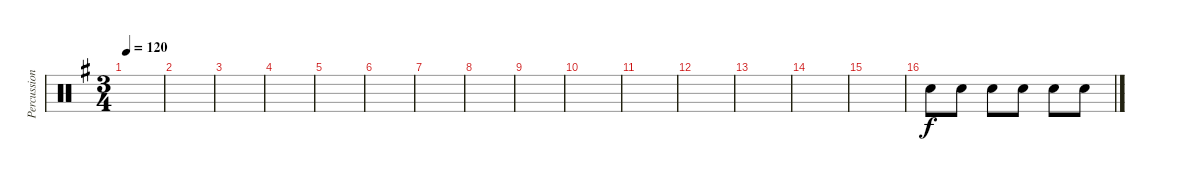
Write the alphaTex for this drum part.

\track ("Percussion" "Percussion") {instrument percussion}
\staff {score}
\articulation defaults
\ts (3 4)
\tempo 120
\clef neutral
\ks eminor
|
|
|
|
|
|
|
|
|
|
|
|
|
|
|
"Snare (hit) 2".8 "Snare (hit) 2".8 "Snare (hit) 2".8 "Snare (hit) 2".8 "Snare (hit) 2".8 "Snare (hit) 2".8
